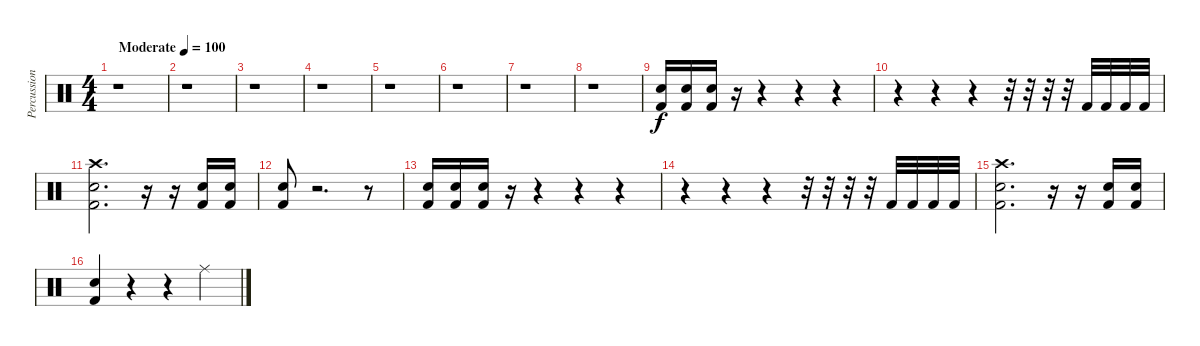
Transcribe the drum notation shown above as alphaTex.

\track ("Percussion" "Percussion") {instrument percussion}
\staff {score}
\articulation defaults
\ts (4 4)
\tempo (100 "Moderate")
\clef neutral
\ks c
r.1{dy f} |
r.1 |
r.1 |
r.1 |
r.1 |
r.1 |
r.1 |
r.1 |
("Electric Snare (hit)" "Kick (hit) 2").16 ("Electric Snare (hit)" "Kick (hit) 2").16 ("Electric Snare (hit)" "Kick (hit) 2").16 r.16 r.4 r.4 r.4 |
r.4 r.4 r.4 r.32 r.32 r.32 r.32 "Kick (hit) 2".32 "Kick (hit) 2".32 "Kick (hit) 2".32 "Kick (hit) 2".32 |
("Crash high (hit)" "Kick (hit) 2" "Electric Snare (hit)").2{d} r.16 r.16 ("Electric Snare (hit)" "Kick (hit) 2").16 ("Electric Snare (hit)" "Kick (hit) 2").16 |
("Electric Snare (hit)" "Kick (hit) 2").8 r.2{d} r.8 |
("Electric Snare (hit)" "Kick (hit) 2").16 ("Electric Snare (hit)" "Kick (hit) 2").16 ("Electric Snare (hit)" "Kick (hit) 2").16 r.16 r.4 r.4 r.4 |
r.4 r.4 r.4 r.32 r.32 r.32 r.32 "Kick (hit) 2".32 "Kick (hit) 2".32 "Kick (hit) 2".32 "Kick (hit) 2".32 |
("Crash high (hit)" "Kick (hit) 2" "Electric Snare (hit)").2{d} r.16 r.16 ("Electric Snare (hit)" "Kick (hit) 2").16 ("Electric Snare (hit)" "Kick (hit) 2").16 |
("Electric Snare (hit)" "Kick (hit) 2").4 r.4 r.4 "Ride (middle)".4
